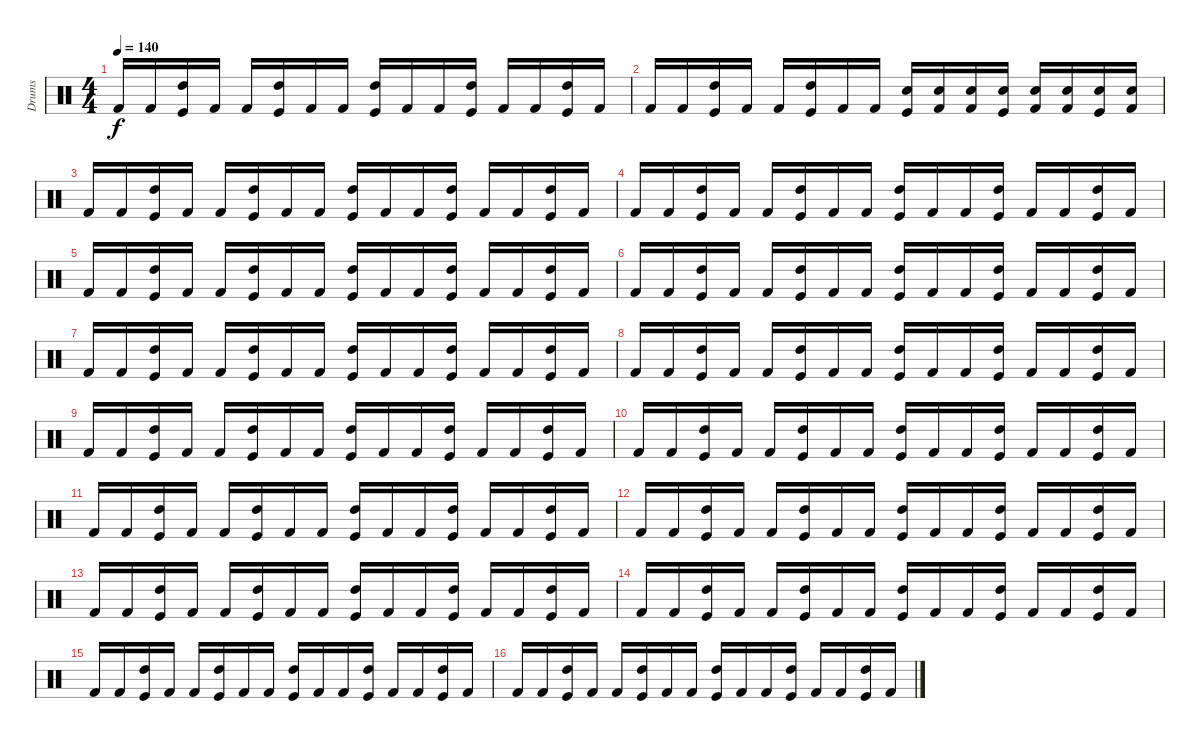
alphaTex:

\track ("Drums" "Drums") {instrument percussion}
\staff {score}
\articulation defaults
\ts (4 4)
\tempo 140
\clef neutral
\ks c "Kick (hit) 2".16{dy f} "Kick (hit) 2".16
("Kick (hit)" "High Tom (hit)").16 "Kick (hit) 2".16 "Kick (hit) 2".16 ("Kick (hit)" "High Tom (hit)").16 "Kick (hit) 2".16 "Kick (hit) 2".16 ("Kick (hit)" "High Tom (hit)").16 "Kick (hit) 2".16 "Kick (hit) 2".16 ("Kick (hit)" "High Tom (hit)").16 "Kick (hit) 2".16 "Kick (hit) 2".16 ("Kick (hit)" "High Tom (hit)").16 "Kick (hit) 2".16 |
"Kick (hit) 2".16 "Kick (hit) 2".16 ("Kick (hit)" "High Tom (hit)").16 "Kick (hit) 2".16 "Kick (hit) 2".16 ("Kick (hit)" "High Tom (hit)").16 "Kick (hit) 2".16 "Kick (hit) 2".16 ("Kick (hit)" "Snare (hit) 2").16 ("Kick (hit) 2" "Snare (hit) 2").16 ("Kick (hit) 2" "Snare (hit) 2").16 ("Kick (hit)" "Snare (hit) 2").16 ("Kick (hit) 2" "Snare (hit) 2").16 ("Kick (hit) 2" "Snare (hit) 2").16 ("Kick (hit)" "Snare (hit) 2").16 ("Kick (hit) 2" "Snare (hit) 2").16 |
"Kick (hit) 2".16 "Kick (hit) 2".16 ("Kick (hit)" "High Tom (hit)").16 "Kick (hit) 2".16 "Kick (hit) 2".16 ("Kick (hit)" "High Tom (hit)").16 "Kick (hit) 2".16 "Kick (hit) 2".16 ("Kick (hit)" "High Tom (hit)").16 "Kick (hit) 2".16 "Kick (hit) 2".16 ("Kick (hit)" "High Tom (hit)").16 "Kick (hit) 2".16 "Kick (hit) 2".16 ("Kick (hit)" "High Tom (hit)").16 "Kick (hit) 2".16 |
"Kick (hit) 2".16 "Kick (hit) 2".16 ("Kick (hit)" "High Tom (hit)").16 "Kick (hit) 2".16 "Kick (hit) 2".16 ("Kick (hit)" "High Tom (hit)").16 "Kick (hit) 2".16 "Kick (hit) 2".16 ("Kick (hit)" "High Tom (hit)").16 "Kick (hit) 2".16 "Kick (hit) 2".16 ("Kick (hit)" "High Tom (hit)").16 "Kick (hit) 2".16 "Kick (hit) 2".16 ("Kick (hit)" "High Tom (hit)").16 "Kick (hit) 2".16 |
"Kick (hit) 2".16 "Kick (hit) 2".16 ("Kick (hit)" "High Tom (hit)").16 "Kick (hit) 2".16 "Kick (hit) 2".16 ("Kick (hit)" "High Tom (hit)").16 "Kick (hit) 2".16 "Kick (hit) 2".16 ("Kick (hit)" "High Tom (hit)").16 "Kick (hit) 2".16 "Kick (hit) 2".16 ("Kick (hit)" "High Tom (hit)").16 "Kick (hit) 2".16 "Kick (hit) 2".16 ("Kick (hit)" "High Tom (hit)").16 "Kick (hit) 2".16 |
"Kick (hit) 2".16 "Kick (hit) 2".16 ("Kick (hit)" "High Tom (hit)").16 "Kick (hit) 2".16 "Kick (hit) 2".16 ("Kick (hit)" "High Tom (hit)").16 "Kick (hit) 2".16 "Kick (hit) 2".16 ("Kick (hit)" "High Tom (hit)").16 "Kick (hit) 2".16 "Kick (hit) 2".16 ("Kick (hit)" "High Tom (hit)").16 "Kick (hit) 2".16 "Kick (hit) 2".16 ("Kick (hit)" "High Tom (hit)").16 "Kick (hit) 2".16 |
"Kick (hit) 2".16 "Kick (hit) 2".16 ("Kick (hit)" "High Tom (hit)").16 "Kick (hit) 2".16 "Kick (hit) 2".16 ("Kick (hit)" "High Tom (hit)").16 "Kick (hit) 2".16 "Kick (hit) 2".16 ("Kick (hit)" "High Tom (hit)").16 "Kick (hit) 2".16 "Kick (hit) 2".16 ("Kick (hit)" "High Tom (hit)").16 "Kick (hit) 2".16 "Kick (hit) 2".16 ("Kick (hit)" "High Tom (hit)").16 "Kick (hit) 2".16 |
"Kick (hit) 2".16 "Kick (hit) 2".16 ("Kick (hit)" "High Tom (hit)").16 "Kick (hit) 2".16 "Kick (hit) 2".16 ("Kick (hit)" "High Tom (hit)").16 "Kick (hit) 2".16 "Kick (hit) 2".16 ("Kick (hit)" "High Tom (hit)").16 "Kick (hit) 2".16 "Kick (hit) 2".16 ("Kick (hit)" "High Tom (hit)").16 "Kick (hit) 2".16 "Kick (hit) 2".16 ("Kick (hit)" "High Tom (hit)").16 "Kick (hit) 2".16 |
"Kick (hit) 2".16 "Kick (hit) 2".16 ("Kick (hit)" "High Tom (hit)").16 "Kick (hit) 2".16 "Kick (hit) 2".16 ("Kick (hit)" "High Tom (hit)").16 "Kick (hit) 2".16 "Kick (hit) 2".16 ("Kick (hit)" "High Tom (hit)").16 "Kick (hit) 2".16 "Kick (hit) 2".16 ("Kick (hit)" "High Tom (hit)").16 "Kick (hit) 2".16 "Kick (hit) 2".16 ("Kick (hit)" "High Tom (hit)").16 "Kick (hit) 2".16 |
"Kick (hit) 2".16 "Kick (hit) 2".16 ("Kick (hit)" "High Tom (hit)").16 "Kick (hit) 2".16 "Kick (hit) 2".16 ("Kick (hit)" "High Tom (hit)").16 "Kick (hit) 2".16 "Kick (hit) 2".16 ("Kick (hit)" "High Tom (hit)").16 "Kick (hit) 2".16 "Kick (hit) 2".16 ("Kick (hit)" "High Tom (hit)").16 "Kick (hit) 2".16 "Kick (hit) 2".16 ("Kick (hit)" "High Tom (hit)").16 "Kick (hit) 2".16 |
"Kick (hit) 2".16 "Kick (hit) 2".16 ("Kick (hit)" "High Tom (hit)").16 "Kick (hit) 2".16 "Kick (hit) 2".16 ("Kick (hit)" "High Tom (hit)").16 "Kick (hit) 2".16 "Kick (hit) 2".16 ("Kick (hit)" "High Tom (hit)").16 "Kick (hit) 2".16 "Kick (hit) 2".16 ("Kick (hit)" "High Tom (hit)").16 "Kick (hit) 2".16 "Kick (hit) 2".16 ("Kick (hit)" "High Tom (hit)").16 "Kick (hit) 2".16 |
"Kick (hit) 2".16 "Kick (hit) 2".16 ("Kick (hit)" "High Tom (hit)").16 "Kick (hit) 2".16 "Kick (hit) 2".16 ("Kick (hit)" "High Tom (hit)").16 "Kick (hit) 2".16 "Kick (hit) 2".16 ("Kick (hit)" "High Tom (hit)").16 "Kick (hit) 2".16 "Kick (hit) 2".16 ("Kick (hit)" "High Tom (hit)").16 "Kick (hit) 2".16 "Kick (hit) 2".16 ("Kick (hit)" "High Tom (hit)").16 "Kick (hit) 2".16 |
"Kick (hit) 2".16 "Kick (hit) 2".16 ("Kick (hit)" "High Tom (hit)").16 "Kick (hit) 2".16 "Kick (hit) 2".16 ("Kick (hit)" "High Tom (hit)").16 "Kick (hit) 2".16 "Kick (hit) 2".16 ("Kick (hit)" "High Tom (hit)").16 "Kick (hit) 2".16 "Kick (hit) 2".16 ("Kick (hit)" "High Tom (hit)").16 "Kick (hit) 2".16 "Kick (hit) 2".16 ("Kick (hit)" "High Tom (hit)").16 "Kick (hit) 2".16 |
"Kick (hit) 2".16 "Kick (hit) 2".16 ("Kick (hit)" "High Tom (hit)").16 "Kick (hit) 2".16 "Kick (hit) 2".16 ("Kick (hit)" "High Tom (hit)").16 "Kick (hit) 2".16 "Kick (hit) 2".16 ("Kick (hit)" "High Tom (hit)").16 "Kick (hit) 2".16 "Kick (hit) 2".16 ("Kick (hit)" "High Tom (hit)").16 "Kick (hit) 2".16 "Kick (hit) 2".16 ("Kick (hit)" "High Tom (hit)").16 "Kick (hit) 2".16 |
"Kick (hit) 2".16 "Kick (hit) 2".16 ("Kick (hit)" "High Tom (hit)").16 "Kick (hit) 2".16 "Kick (hit) 2".16 ("Kick (hit)" "High Tom (hit)").16 "Kick (hit) 2".16 "Kick (hit) 2".16 ("Kick (hit)" "High Tom (hit)").16 "Kick (hit) 2".16 "Kick (hit) 2".16 ("Kick (hit)" "High Tom (hit)").16 "Kick (hit) 2".16 "Kick (hit) 2".16 ("Kick (hit)" "High Tom (hit)").16 "Kick (hit) 2".16 |
"Kick (hit) 2".16 "Kick (hit) 2".16 ("Kick (hit)" "High Tom (hit)").16 "Kick (hit) 2".16 "Kick (hit) 2".16 ("Kick (hit)" "High Tom (hit)").16 "Kick (hit) 2".16 "Kick (hit) 2".16 ("Kick (hit)" "High Tom (hit)").16 "Kick (hit) 2".16 "Kick (hit) 2".16 ("Kick (hit)" "High Tom (hit)").16 "Kick (hit) 2".16 "Kick (hit) 2".16 ("Kick (hit)" "High Tom (hit)").16 "Kick (hit) 2".16
